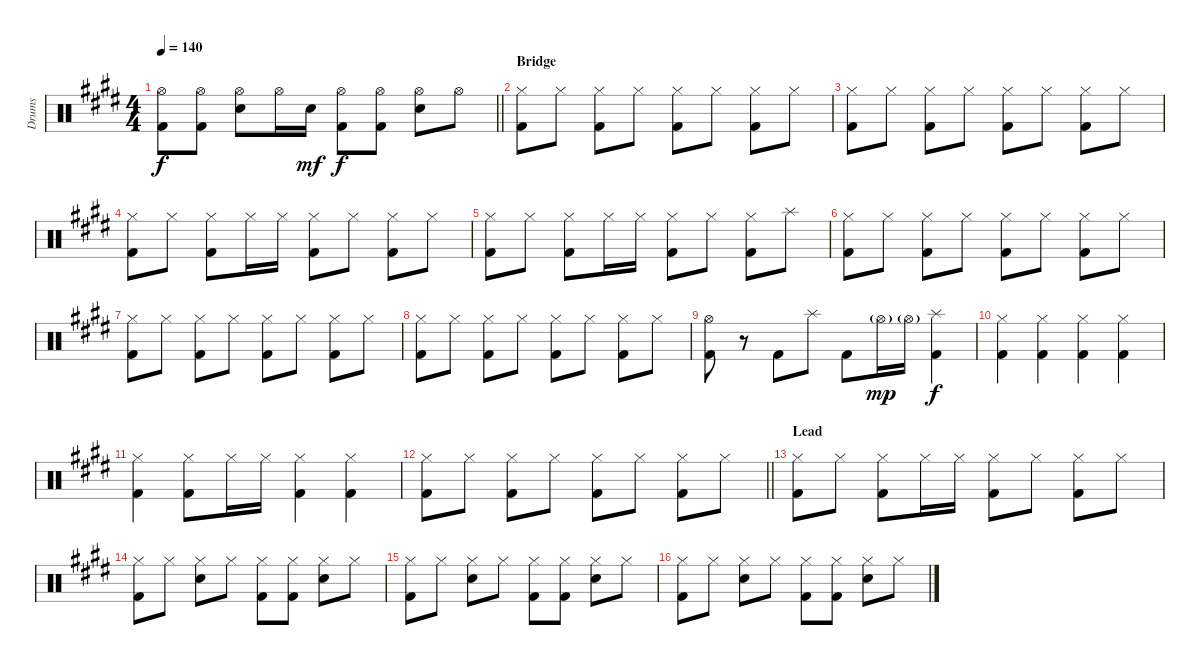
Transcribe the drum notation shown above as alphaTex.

\track ("Drums" "Drums") {instrument percussion}
\staff {score}
\articulation defaults
\ts (4 4)
\tempo 140
\clef neutral
\barLineRight lightlight
\ks c#minor
("Hi-Hat (open)" "Kick (hit) 2").8{dy f} ("Hi-Hat (open)" "Kick (hit) 2").8 ("Hi-Hat (open)" "Snare (hit) 2").8 "Hi-Hat (open)".16 "Snare (hit) 2".16{dy mf} ("Hi-Hat (open)" "Kick (hit) 2").8{dy f} ("Hi-Hat (open)" "Kick (hit) 2").8 ("Hi-Hat (open)" "Snare (hit) 2").8 "Hi-Hat (open)".8 |
\section ("" "Bridge")
("Hi-Hat (closed)" "Kick (hit) 2").8 "Hi-Hat (closed)".8 ("Hi-Hat (closed)" "Kick (hit) 2").8 "Hi-Hat (closed)".8 ("Hi-Hat (closed)" "Kick (hit) 2").8 "Hi-Hat (closed)".8 ("Hi-Hat (closed)" "Kick (hit) 2").8 "Hi-Hat (closed)".8 |
("Hi-Hat (closed)" "Kick (hit) 2").8 "Hi-Hat (closed)".8 ("Hi-Hat (closed)" "Kick (hit) 2").8 "Hi-Hat (closed)".8 ("Hi-Hat (closed)" "Kick (hit) 2").8 "Hi-Hat (closed)".8 ("Hi-Hat (closed)" "Kick (hit) 2").8 "Hi-Hat (closed)".8 |
("Hi-Hat (closed)" "Kick (hit) 2").8 "Hi-Hat (closed)".8 ("Hi-Hat (closed)" "Kick (hit) 2").8 "Hi-Hat (closed)".16 "Hi-Hat (closed)".16 ("Hi-Hat (closed)" "Kick (hit) 2").8 "Hi-Hat (closed)".8 ("Hi-Hat (closed)" "Kick (hit) 2").8 "Hi-Hat (closed)".8 |
("Hi-Hat (closed)" "Kick (hit) 2").8 "Hi-Hat (closed)".8 ("Hi-Hat (closed)" "Kick (hit) 2").8 "Hi-Hat (closed)".16 "Hi-Hat (closed)".16 ("Hi-Hat (closed)" "Kick (hit) 2").8 "Hi-Hat (closed)".8 ("Hi-Hat (closed)" "Kick (hit) 2").8 "Splash (hit)".8 |
("Hi-Hat (closed)" "Kick (hit) 2").8 "Hi-Hat (closed)".8 ("Hi-Hat (closed)" "Kick (hit) 2").8 "Hi-Hat (closed)".8 ("Hi-Hat (closed)" "Kick (hit) 2").8 "Hi-Hat (closed)".8 ("Hi-Hat (closed)" "Kick (hit) 2").8 "Hi-Hat (closed)".8 |
("Hi-Hat (closed)" "Kick (hit) 2").8 "Hi-Hat (closed)".8 ("Hi-Hat (closed)" "Kick (hit) 2").8 "Hi-Hat (closed)".8 ("Hi-Hat (closed)" "Kick (hit) 2").8 "Hi-Hat (closed)".8 ("Hi-Hat (closed)" "Kick (hit) 2").8 "Hi-Hat (closed)".8 |
("Hi-Hat (closed)" "Kick (hit) 2").8 "Hi-Hat (closed)".8 ("Hi-Hat (closed)" "Kick (hit) 2").8 "Hi-Hat (closed)".8 ("Hi-Hat (closed)" "Kick (hit) 2").8 "Hi-Hat (closed)".8 ("Hi-Hat (closed)" "Kick (hit) 2").8 "Hi-Hat (closed)".8 |
("Hi-Hat (open)" "Kick (hit) 2").8 r.8 "Kick (hit) 2".8 "Splash (hit)".8 "Kick (hit) 2".8 "Hi-Hat (open)"{g}.16{dy mp} "Hi-Hat (open)"{g}.16 ("Splash (hit)" "Kick (hit) 2").4{dy f} |
("Hi-Hat (closed)" "Kick (hit) 2").4 ("Hi-Hat (closed)" "Kick (hit) 2").4 ("Hi-Hat (closed)" "Kick (hit) 2").4 ("Hi-Hat (closed)" "Kick (hit) 2").4 |
("Hi-Hat (closed)" "Kick (hit) 2").4 ("Hi-Hat (closed)" "Kick (hit) 2").8 "Hi-Hat (closed)".16 "Hi-Hat (closed)".16 ("Hi-Hat (closed)" "Kick (hit) 2").4 ("Hi-Hat (closed)" "Kick (hit) 2").4 |
\barLineRight lightlight
("Hi-Hat (closed)" "Kick (hit) 2").8 "Hi-Hat (closed)".8 ("Hi-Hat (closed)" "Kick (hit) 2").8 "Hi-Hat (closed)".8 ("Hi-Hat (closed)" "Kick (hit) 2").8 "Hi-Hat (closed)".8 ("Hi-Hat (closed)" "Kick (hit) 2").8 "Hi-Hat (closed)".8 |
\section ("" "Lead")
("Hi-Hat (closed)" "Kick (hit) 2").8 "Hi-Hat (closed)".8 ("Hi-Hat (closed)" "Kick (hit) 2").8 "Hi-Hat (closed)".16 "Hi-Hat (closed)".16 ("Hi-Hat (closed)" "Kick (hit) 2").8 "Hi-Hat (closed)".8 ("Hi-Hat (closed)" "Kick (hit) 2").8 "Hi-Hat (closed)".8 |
("Hi-Hat (closed)" "Kick (hit) 2").8 "Hi-Hat (closed)".8 ("Hi-Hat (closed)" "Snare (hit) 2").8 "Hi-Hat (closed)".8 ("Hi-Hat (closed)" "Kick (hit) 2").8 ("Hi-Hat (closed)" "Kick (hit) 2").8 ("Hi-Hat (closed)" "Snare (hit) 2").8 "Hi-Hat (closed)".8 |
("Hi-Hat (closed)" "Kick (hit) 2").8 "Hi-Hat (closed)".8 ("Hi-Hat (closed)" "Snare (hit) 2").8 "Hi-Hat (closed)".8 ("Hi-Hat (closed)" "Kick (hit) 2").8 ("Hi-Hat (closed)" "Kick (hit) 2").8 ("Hi-Hat (closed)" "Snare (hit) 2").8 "Hi-Hat (closed)".8 |
("Hi-Hat (closed)" "Kick (hit) 2").8 "Hi-Hat (closed)".8 ("Hi-Hat (closed)" "Snare (hit) 2").8 "Hi-Hat (closed)".8 ("Hi-Hat (closed)" "Kick (hit) 2").8 ("Hi-Hat (closed)" "Kick (hit) 2").8 ("Hi-Hat (closed)" "Snare (hit) 2").8 "Hi-Hat (closed)".8
